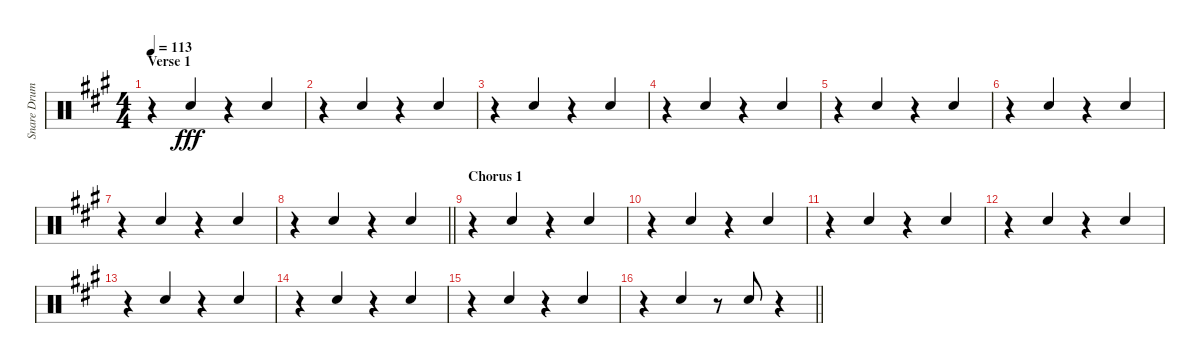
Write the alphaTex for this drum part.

\track ("Snare Drum" "Snare Drum") {instrument percussion}
\staff {score}
\articulation defaults
\ts (4 4)
\section ("" "Verse 1")
\tempo 113
\clef neutral
\ks f#minor
r.4{dy fff} "Electric Snare (hit)".4{beam Up} r.4 "Electric Snare (hit)".4{beam Up} |
r.4 "Electric Snare (hit)".4{beam Up} r.4 "Electric Snare (hit)".4{beam Up} |
r.4 "Electric Snare (hit)".4{beam Up} r.4 "Electric Snare (hit)".4{beam Up} |
r.4 "Electric Snare (hit)".4{beam Up} r.4 "Electric Snare (hit)".4{beam Up} |
r.4 "Electric Snare (hit)".4{beam Up} r.4 "Electric Snare (hit)".4{beam Up} |
r.4 "Electric Snare (hit)".4{beam Up} r.4 "Electric Snare (hit)".4{beam Up} |
r.4 "Electric Snare (hit)".4{beam Up} r.4 "Electric Snare (hit)".4{beam Up} |
\barLineRight lightlight
r.4 "Electric Snare (hit)".4{beam Up} r.4 "Electric Snare (hit)".4{beam Up} |
\section ("" "Chorus 1")
r.4 "Electric Snare (hit)".4{beam Up} r.4 "Electric Snare (hit)".4{beam Up} |
r.4 "Electric Snare (hit)".4{beam Up} r.4 "Electric Snare (hit)".4{beam Up} |
r.4 "Electric Snare (hit)".4{beam Up} r.4 "Electric Snare (hit)".4{beam Up} |
r.4 "Electric Snare (hit)".4{beam Up} r.4 "Electric Snare (hit)".4{beam Up} |
r.4 "Electric Snare (hit)".4{beam Up} r.4 "Electric Snare (hit)".4{beam Up} |
r.4 "Electric Snare (hit)".4{beam Up} r.4 "Electric Snare (hit)".4{beam Up} |
r.4 "Electric Snare (hit)".4{beam Up} r.4 "Electric Snare (hit)".4{beam Up} |
\barLineRight lightlight
r.4 "Electric Snare (hit)".4{beam Up} r.8 "Electric Snare (hit)".8{beam Up} r.4
